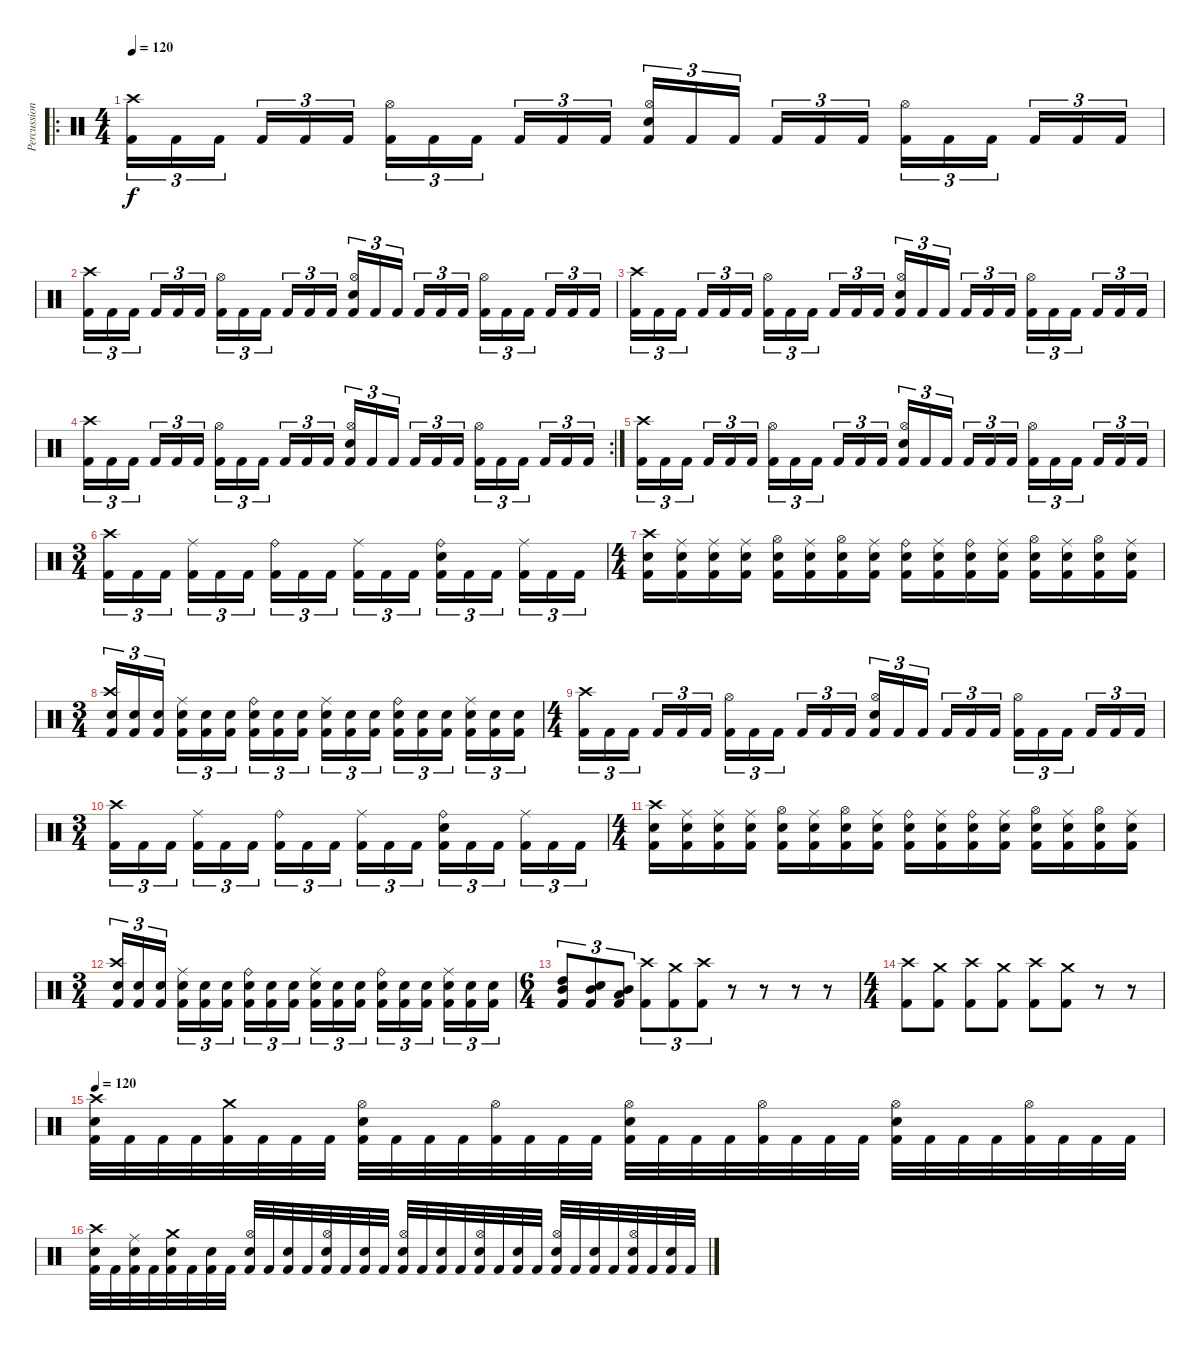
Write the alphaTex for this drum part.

\track ("Percussion" "Percussion") {instrument percussion}
\staff {score}
\articulation defaults
\ro
\ts (4 4)
\tempo 120
\clef neutral
\ks c
("Kick (hit) 2" "Crash high (hit)").16{tu (3 2) dy f} "Kick (hit) 2".16{tu (3 2)} "Kick (hit) 2".16{tu (3 2) beam splitsecondary} "Kick (hit) 2".16{tu (3 2)} "Kick (hit) 2".16{tu (3 2)} "Kick (hit) 2".16{tu (3 2)} ("Kick (hit) 2" "Hi-Hat (open)").16{tu (3 2)} "Kick (hit) 2".16{tu (3 2)} "Kick (hit) 2".16{tu (3 2) beam splitsecondary} "Kick (hit) 2".16{tu (3 2)} "Kick (hit) 2".16{tu (3 2)} "Kick (hit) 2".16{tu (3 2)} ("Kick (hit) 2" "Hi-Hat (open)" "Electric Snare (hit)").16{tu (3 2)} "Kick (hit) 2".16{tu (3 2)} "Kick (hit) 2".16{tu (3 2) beam splitsecondary} "Kick (hit) 2".16{tu (3 2)} "Kick (hit) 2".16{tu (3 2)} "Kick (hit) 2".16{tu (3 2)} ("Kick (hit) 2" "Hi-Hat (open)").16{tu (3 2)} "Kick (hit) 2".16{tu (3 2)} "Kick (hit) 2".16{tu (3 2) beam splitsecondary} "Kick (hit) 2".16{tu (3 2)} "Kick (hit) 2".16{tu (3 2)} "Kick (hit) 2".16{tu (3 2)} |
("Kick (hit) 2" "Crash high (hit)").16{tu (3 2)} "Kick (hit) 2".16{tu (3 2)} "Kick (hit) 2".16{tu (3 2) beam splitsecondary} "Kick (hit) 2".16{tu (3 2)} "Kick (hit) 2".16{tu (3 2)} "Kick (hit) 2".16{tu (3 2)} ("Kick (hit) 2" "Hi-Hat (open)").16{tu (3 2)} "Kick (hit) 2".16{tu (3 2)} "Kick (hit) 2".16{tu (3 2) beam splitsecondary} "Kick (hit) 2".16{tu (3 2)} "Kick (hit) 2".16{tu (3 2)} "Kick (hit) 2".16{tu (3 2)} ("Kick (hit) 2" "Hi-Hat (open)" "Electric Snare (hit)").16{tu (3 2)} "Kick (hit) 2".16{tu (3 2)} "Kick (hit) 2".16{tu (3 2) beam splitsecondary} "Kick (hit) 2".16{tu (3 2)} "Kick (hit) 2".16{tu (3 2)} "Kick (hit) 2".16{tu (3 2)} ("Kick (hit) 2" "Hi-Hat (open)").16{tu (3 2)} "Kick (hit) 2".16{tu (3 2)} "Kick (hit) 2".16{tu (3 2) beam splitsecondary} "Kick (hit) 2".16{tu (3 2)} "Kick (hit) 2".16{tu (3 2)} "Kick (hit) 2".16{tu (3 2)} |
("Kick (hit) 2" "Crash high (hit)").16{tu (3 2)} "Kick (hit) 2".16{tu (3 2)} "Kick (hit) 2".16{tu (3 2) beam splitsecondary} "Kick (hit) 2".16{tu (3 2)} "Kick (hit) 2".16{tu (3 2)} "Kick (hit) 2".16{tu (3 2)} ("Kick (hit) 2" "Hi-Hat (open)").16{tu (3 2)} "Kick (hit) 2".16{tu (3 2)} "Kick (hit) 2".16{tu (3 2) beam splitsecondary} "Kick (hit) 2".16{tu (3 2)} "Kick (hit) 2".16{tu (3 2)} "Kick (hit) 2".16{tu (3 2)} ("Kick (hit) 2" "Hi-Hat (open)" "Electric Snare (hit)").16{tu (3 2)} "Kick (hit) 2".16{tu (3 2)} "Kick (hit) 2".16{tu (3 2) beam splitsecondary} "Kick (hit) 2".16{tu (3 2)} "Kick (hit) 2".16{tu (3 2)} "Kick (hit) 2".16{tu (3 2)} ("Kick (hit) 2" "Hi-Hat (open)").16{tu (3 2)} "Kick (hit) 2".16{tu (3 2)} "Kick (hit) 2".16{tu (3 2) beam splitsecondary} "Kick (hit) 2".16{tu (3 2)} "Kick (hit) 2".16{tu (3 2)} "Kick (hit) 2".16{tu (3 2)} |
\rc 2
("Kick (hit) 2" "Crash high (hit)").16{tu (3 2)} "Kick (hit) 2".16{tu (3 2)} "Kick (hit) 2".16{tu (3 2) beam splitsecondary} "Kick (hit) 2".16{tu (3 2)} "Kick (hit) 2".16{tu (3 2)} "Kick (hit) 2".16{tu (3 2)} ("Kick (hit) 2" "Hi-Hat (open)").16{tu (3 2)} "Kick (hit) 2".16{tu (3 2)} "Kick (hit) 2".16{tu (3 2) beam splitsecondary} "Kick (hit) 2".16{tu (3 2)} "Kick (hit) 2".16{tu (3 2)} "Kick (hit) 2".16{tu (3 2)} ("Kick (hit) 2" "Hi-Hat (open)" "Electric Snare (hit)").16{tu (3 2)} "Kick (hit) 2".16{tu (3 2)} "Kick (hit) 2".16{tu (3 2) beam splitsecondary} "Kick (hit) 2".16{tu (3 2)} "Kick (hit) 2".16{tu (3 2)} "Kick (hit) 2".16{tu (3 2)} ("Kick (hit) 2" "Hi-Hat (open)").16{tu (3 2)} "Kick (hit) 2".16{tu (3 2)} "Kick (hit) 2".16{tu (3 2) beam splitsecondary} "Kick (hit) 2".16{tu (3 2)} "Kick (hit) 2".16{tu (3 2)} "Kick (hit) 2".16{tu (3 2)} |
("Kick (hit) 2" "Crash high (hit)").16{tu (3 2)} "Kick (hit) 2".16{tu (3 2)} "Kick (hit) 2".16{tu (3 2) beam splitsecondary} "Kick (hit) 2".16{tu (3 2)} "Kick (hit) 2".16{tu (3 2)} "Kick (hit) 2".16{tu (3 2)} ("Kick (hit) 2" "Hi-Hat (open)").16{tu (3 2)} "Kick (hit) 2".16{tu (3 2)} "Kick (hit) 2".16{tu (3 2) beam splitsecondary} "Kick (hit) 2".16{tu (3 2)} "Kick (hit) 2".16{tu (3 2)} "Kick (hit) 2".16{tu (3 2)} ("Kick (hit) 2" "Hi-Hat (open)" "Electric Snare (hit)").16{tu (3 2)} "Kick (hit) 2".16{tu (3 2)} "Kick (hit) 2".16{tu (3 2) beam splitsecondary} "Kick (hit) 2".16{tu (3 2)} "Kick (hit) 2".16{tu (3 2)} "Kick (hit) 2".16{tu (3 2)} ("Kick (hit) 2" "Hi-Hat (open)").16{tu (3 2)} "Kick (hit) 2".16{tu (3 2)} "Kick (hit) 2".16{tu (3 2) beam splitsecondary} "Kick (hit) 2".16{tu (3 2)} "Kick (hit) 2".16{tu (3 2)} "Kick (hit) 2".16{tu (3 2)} |
\ts (3 4)
("Kick (hit) 2" "Crash high (hit)").16{tu (3 2)} "Kick (hit) 2".16{tu (3 2)} "Kick (hit) 2".16{tu (3 2) beam splitsecondary} ("Kick (hit) 2" "Ride (middle)").16{tu (3 2)} "Kick (hit) 2".16{tu (3 2)} "Kick (hit) 2".16{tu (3 2)} ("Kick (hit) 2" "Ride (bell)").16{tu (3 2)} "Kick (hit) 2".16{tu (3 2)} "Kick (hit) 2".16{tu (3 2) beam splitsecondary} ("Kick (hit) 2" "Ride (middle)").16{tu (3 2)} "Kick (hit) 2".16{tu (3 2)} "Kick (hit) 2".16{tu (3 2)} ("Kick (hit) 2" "Ride (bell)" "Electric Snare (hit)").16{tu (3 2)} "Kick (hit) 2".16{tu (3 2)} "Kick (hit) 2".16{tu (3 2) beam splitsecondary} ("Kick (hit) 2" "Ride (middle)").16{tu (3 2)} "Kick (hit) 2".16{tu (3 2)} "Kick (hit) 2".16{tu (3 2)} |
\ts (4 4)
("Kick (hit) 2" "Electric Snare (hit)" "Crash high (hit)").16 ("Kick (hit) 2" "Electric Snare (hit)" "Ride (middle)").16 ("Kick (hit) 2" "Electric Snare (hit)" "Ride (middle)").16 ("Kick (hit) 2" "Electric Snare (hit)" "Ride (middle)").16 ("Kick (hit) 2" "Electric Snare (hit)" "Hi-Hat (open)").16 ("Kick (hit) 2" "Electric Snare (hit)" "Ride (middle)").16 ("Kick (hit) 2" "Electric Snare (hit)" "Hi-Hat (open)").16 ("Kick (hit) 2" "Electric Snare (hit)" "Ride (middle)").16 ("Kick (hit) 2" "Electric Snare (hit)" "Ride (bell)").16 ("Kick (hit) 2" "Electric Snare (hit)" "Ride (middle)").16 ("Kick (hit) 2" "Electric Snare (hit)" "Ride (bell)").16 ("Kick (hit) 2" "Electric Snare (hit)" "Ride (middle)").16 ("Kick (hit) 2" "Electric Snare (hit)" "Hi-Hat (open)").16 ("Kick (hit) 2" "Electric Snare (hit)" "Ride (middle)").16 ("Kick (hit) 2" "Electric Snare (hit)" "Hi-Hat (open)").16 ("Kick (hit) 2" "Electric Snare (hit)" "Ride (middle)").16 |
\ts (3 4)
("Kick (hit) 2" "Crash high (hit)" "Electric Snare (hit)").16{tu (3 2)} ("Kick (hit) 2" "Electric Snare (hit)").16{tu (3 2)} ("Kick (hit) 2" "Electric Snare (hit)").16{tu (3 2) beam splitsecondary} ("Kick (hit) 2" "Ride (middle)" "Electric Snare (hit)").16{tu (3 2)} ("Kick (hit) 2" "Electric Snare (hit)").16{tu (3 2)} ("Kick (hit) 2" "Electric Snare (hit)").16{tu (3 2)} ("Kick (hit) 2" "Ride (bell)" "Electric Snare (hit)").16{tu (3 2)} ("Kick (hit) 2" "Electric Snare (hit)").16{tu (3 2)} ("Kick (hit) 2" "Electric Snare (hit)").16{tu (3 2) beam splitsecondary} ("Kick (hit) 2" "Ride (middle)" "Electric Snare (hit)").16{tu (3 2)} ("Kick (hit) 2" "Electric Snare (hit)").16{tu (3 2)} ("Kick (hit) 2" "Electric Snare (hit)").16{tu (3 2)} ("Kick (hit) 2" "Ride (bell)" "Electric Snare (hit)").16{tu (3 2)} ("Kick (hit) 2" "Electric Snare (hit)").16{tu (3 2)} ("Kick (hit) 2" "Electric Snare (hit)").16{tu (3 2) beam splitsecondary} ("Kick (hit) 2" "Ride (middle)" "Electric Snare (hit)").16{tu (3 2)} ("Kick (hit) 2" "Electric Snare (hit)").16{tu (3 2)} ("Kick (hit) 2" "Electric Snare (hit)").16{tu (3 2)} |
\ts (4 4)
("Kick (hit) 2" "Crash high (hit)").16{tu (3 2)} "Kick (hit) 2".16{tu (3 2)} "Kick (hit) 2".16{tu (3 2) beam splitsecondary} "Kick (hit) 2".16{tu (3 2)} "Kick (hit) 2".16{tu (3 2)} "Kick (hit) 2".16{tu (3 2)} ("Kick (hit) 2" "Hi-Hat (open)").16{tu (3 2)} "Kick (hit) 2".16{tu (3 2)} "Kick (hit) 2".16{tu (3 2) beam splitsecondary} "Kick (hit) 2".16{tu (3 2)} "Kick (hit) 2".16{tu (3 2)} "Kick (hit) 2".16{tu (3 2)} ("Kick (hit) 2" "Hi-Hat (open)" "Electric Snare (hit)").16{tu (3 2)} "Kick (hit) 2".16{tu (3 2)} "Kick (hit) 2".16{tu (3 2) beam splitsecondary} "Kick (hit) 2".16{tu (3 2)} "Kick (hit) 2".16{tu (3 2)} "Kick (hit) 2".16{tu (3 2)} ("Kick (hit) 2" "Hi-Hat (open)").16{tu (3 2)} "Kick (hit) 2".16{tu (3 2)} "Kick (hit) 2".16{tu (3 2) beam splitsecondary} "Kick (hit) 2".16{tu (3 2)} "Kick (hit) 2".16{tu (3 2)} "Kick (hit) 2".16{tu (3 2)} |
\ts (3 4)
("Kick (hit) 2" "Crash high (hit)").16{tu (3 2)} "Kick (hit) 2".16{tu (3 2)} "Kick (hit) 2".16{tu (3 2) beam splitsecondary} ("Kick (hit) 2" "Ride (middle)").16{tu (3 2)} "Kick (hit) 2".16{tu (3 2)} "Kick (hit) 2".16{tu (3 2)} ("Kick (hit) 2" "Ride (bell)").16{tu (3 2)} "Kick (hit) 2".16{tu (3 2)} "Kick (hit) 2".16{tu (3 2) beam splitsecondary} ("Kick (hit) 2" "Ride (middle)").16{tu (3 2)} "Kick (hit) 2".16{tu (3 2)} "Kick (hit) 2".16{tu (3 2)} ("Kick (hit) 2" "Ride (bell)" "Electric Snare (hit)").16{tu (3 2)} "Kick (hit) 2".16{tu (3 2)} "Kick (hit) 2".16{tu (3 2) beam splitsecondary} ("Kick (hit) 2" "Ride (middle)").16{tu (3 2)} "Kick (hit) 2".16{tu (3 2)} "Kick (hit) 2".16{tu (3 2)} |
\ts (4 4)
("Kick (hit) 2" "Electric Snare (hit)" "Crash high (hit)").16 ("Kick (hit) 2" "Electric Snare (hit)" "Ride (middle)").16 ("Kick (hit) 2" "Electric Snare (hit)" "Ride (middle)").16 ("Kick (hit) 2" "Electric Snare (hit)" "Ride (middle)").16 ("Kick (hit) 2" "Electric Snare (hit)" "Hi-Hat (open)").16 ("Kick (hit) 2" "Electric Snare (hit)" "Ride (middle)").16 ("Kick (hit) 2" "Electric Snare (hit)" "Hi-Hat (open)").16 ("Kick (hit) 2" "Electric Snare (hit)" "Ride (middle)").16 ("Kick (hit) 2" "Electric Snare (hit)" "Ride (bell)").16 ("Kick (hit) 2" "Electric Snare (hit)" "Ride (middle)").16 ("Kick (hit) 2" "Electric Snare (hit)" "Ride (bell)").16 ("Kick (hit) 2" "Electric Snare (hit)" "Ride (middle)").16 ("Kick (hit) 2" "Electric Snare (hit)" "Hi-Hat (open)").16 ("Kick (hit) 2" "Electric Snare (hit)" "Ride (middle)").16 ("Kick (hit) 2" "Electric Snare (hit)" "Hi-Hat (open)").16 ("Kick (hit) 2" "Electric Snare (hit)" "Ride (middle)").16 |
\ts (3 4)
("Kick (hit) 2" "Crash high (hit)" "Electric Snare (hit)").16{tu (3 2)} ("Kick (hit) 2" "Electric Snare (hit)").16{tu (3 2)} ("Kick (hit) 2" "Electric Snare (hit)").16{tu (3 2) beam splitsecondary} ("Kick (hit) 2" "Ride (middle)" "Electric Snare (hit)").16{tu (3 2)} ("Kick (hit) 2" "Electric Snare (hit)").16{tu (3 2)} ("Kick (hit) 2" "Electric Snare (hit)").16{tu (3 2)} ("Kick (hit) 2" "Ride (bell)" "Electric Snare (hit)").16{tu (3 2)} ("Kick (hit) 2" "Electric Snare (hit)").16{tu (3 2)} ("Kick (hit) 2" "Electric Snare (hit)").16{tu (3 2) beam splitsecondary} ("Kick (hit) 2" "Ride (middle)" "Electric Snare (hit)").16{tu (3 2)} ("Kick (hit) 2" "Electric Snare (hit)").16{tu (3 2)} ("Kick (hit) 2" "Electric Snare (hit)").16{tu (3 2)} ("Kick (hit) 2" "Ride (bell)" "Electric Snare (hit)").16{tu (3 2)} ("Kick (hit) 2" "Electric Snare (hit)").16{tu (3 2)} ("Kick (hit) 2" "Electric Snare (hit)").16{tu (3 2) beam splitsecondary} ("Kick (hit) 2" "Ride (middle)" "Electric Snare (hit)").16{tu (3 2)} ("Kick (hit) 2" "Electric Snare (hit)").16{tu (3 2)} ("Kick (hit) 2" "Electric Snare (hit)").16{tu (3 2)} |
\ts (6 4)
("Mid Tom (hit)" "High Tom (hit)" "Kick (hit) 2").8{tu (3 2)} ("Mid Tom (hit)" "Electric Snare (hit)" "Kick (hit) 2").8{tu (3 2)} ("Mid Tom (hit)" "Low Tom (hit)" "Kick (hit) 2").8{tu (3 2)} ("Crash high (hit)" "Kick (hit) 2").8{tu (3 2)} ("Crash medium (hit)" "Kick (hit) 2").8{tu (3 2)} ("Crash high (hit)" "Kick (hit) 2").8{tu (3 2)} r.8 r.8 r.8 r.8 |
\ts (4 4)
("Crash high (hit)" "Kick (hit) 2").8 ("Crash medium (hit)" "Kick (hit) 2").8 ("Crash high (hit)" "Kick (hit) 2").8 ("Crash medium (hit)" "Kick (hit) 2").8 ("Crash high (hit)" "Kick (hit) 2").8 ("Crash medium (hit)" "Kick (hit) 2").8 r.8 r.8 |
\tempo 120
("Electric Snare (hit)" "Crash high (hit)" "Kick (hit) 2").32 "Kick (hit) 2".32 "Kick (hit) 2".32 "Kick (hit) 2".32 ("Crash medium (hit)" "Kick (hit) 2").32 "Kick (hit) 2".32 "Kick (hit) 2".32 "Kick (hit) 2".32 ("Electric Snare (hit)" "Hi-Hat (open)" "Kick (hit) 2").32 "Kick (hit) 2".32 "Kick (hit) 2".32 "Kick (hit) 2".32 ("Hi-Hat (open)" "Kick (hit) 2").32 "Kick (hit) 2".32 "Kick (hit) 2".32 "Kick (hit) 2".32 ("Electric Snare (hit)" "Hi-Hat (open)" "Kick (hit) 2").32 "Kick (hit) 2".32 "Kick (hit) 2".32 "Kick (hit) 2".32 ("Hi-Hat (open)" "Kick (hit) 2").32 "Kick (hit) 2".32 "Kick (hit) 2".32 "Kick (hit) 2".32 ("Electric Snare (hit)" "Hi-Hat (open)" "Kick (hit) 2").32 "Kick (hit) 2".32 "Kick (hit) 2".32 "Kick (hit) 2".32 ("Hi-Hat (open)" "Kick (hit) 2").32 "Kick (hit) 2".32 "Kick (hit) 2".32 "Kick (hit) 2".32 |
("Electric Snare (hit)" "Crash high (hit)" "Kick (hit) 2").32 "Kick (hit) 2".32 ("Ride (middle)" "Electric Snare (hit)" "Kick (hit) 2").32 "Kick (hit) 2".32 ("Electric Snare (hit)" "Crash medium (hit)" "Kick (hit) 2").32 "Kick (hit) 2".32 ("Electric Snare (hit)" "Kick (hit) 2").32 "Kick (hit) 2".32 ("Electric Snare (hit)" "Hi-Hat (open)" "Kick (hit) 2").32 "Kick (hit) 2".32 ("Electric Snare (hit)" "Kick (hit) 2").32 "Kick (hit) 2".32 ("Electric Snare (hit)" "Hi-Hat (open)" "Kick (hit) 2").32 "Kick (hit) 2".32 ("Electric Snare (hit)" "Kick (hit) 2").32 "Kick (hit) 2".32 ("Electric Snare (hit)" "Hi-Hat (open)" "Kick (hit) 2").32 "Kick (hit) 2".32 ("Electric Snare (hit)" "Kick (hit) 2").32 "Kick (hit) 2".32 ("Electric Snare (hit)" "Hi-Hat (open)" "Kick (hit) 2").32 "Kick (hit) 2".32 ("Electric Snare (hit)" "Kick (hit) 2").32 "Kick (hit) 2".32 ("Electric Snare (hit)" "Hi-Hat (open)" "Kick (hit) 2").32 "Kick (hit) 2".32 ("Electric Snare (hit)" "Kick (hit) 2").32 "Kick (hit) 2".32 ("Electric Snare (hit)" "Hi-Hat (open)" "Kick (hit) 2").32 "Kick (hit) 2".32 ("Electric Snare (hit)" "Kick (hit) 2").32 "Kick (hit) 2".32
